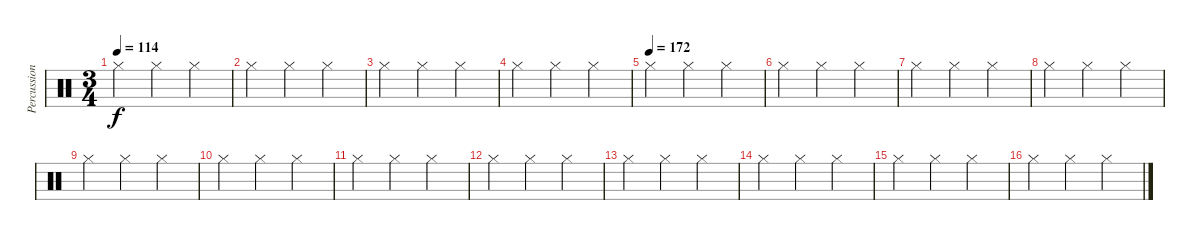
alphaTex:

\track ("Percussion" "Percussion") {instrument percussion}
\staff {score}
\articulation defaults
\ts (3 4)
\tempo 114
\clef neutral
\ks c "Hi-Hat (closed)".4{dy f} "Hi-Hat (closed)".4 "Hi-Hat (closed)".4
|
"Hi-Hat (closed)".4 "Hi-Hat (closed)".4 "Hi-Hat (closed)".4 |
"Hi-Hat (closed)".4 "Hi-Hat (closed)".4 "Hi-Hat (closed)".4 |
"Hi-Hat (closed)".4 "Hi-Hat (closed)".4 "Hi-Hat (closed)".4 |
\tempo (172)
"Hi-Hat (closed)".4 "Hi-Hat (closed)".4 "Hi-Hat (closed)".4 |
"Hi-Hat (closed)".4 "Hi-Hat (closed)".4 "Hi-Hat (closed)".4 |
"Hi-Hat (closed)".4 "Hi-Hat (closed)".4 "Hi-Hat (closed)".4 |
"Hi-Hat (closed)".4 "Hi-Hat (closed)".4 "Hi-Hat (closed)".4 |
"Hi-Hat (closed)".4 "Hi-Hat (closed)".4 "Hi-Hat (closed)".4 |
"Hi-Hat (closed)".4 "Hi-Hat (closed)".4 "Hi-Hat (closed)".4 |
"Hi-Hat (closed)".4 "Hi-Hat (closed)".4 "Hi-Hat (closed)".4 |
"Hi-Hat (closed)".4 "Hi-Hat (closed)".4 "Hi-Hat (closed)".4 |
"Hi-Hat (closed)".4 "Hi-Hat (closed)".4 "Hi-Hat (closed)".4 |
"Hi-Hat (closed)".4 "Hi-Hat (closed)".4 "Hi-Hat (closed)".4 |
"Hi-Hat (closed)".4 "Hi-Hat (closed)".4 "Hi-Hat (closed)".4 |
"Hi-Hat (closed)".4 "Hi-Hat (closed)".4 "Hi-Hat (closed)".4
